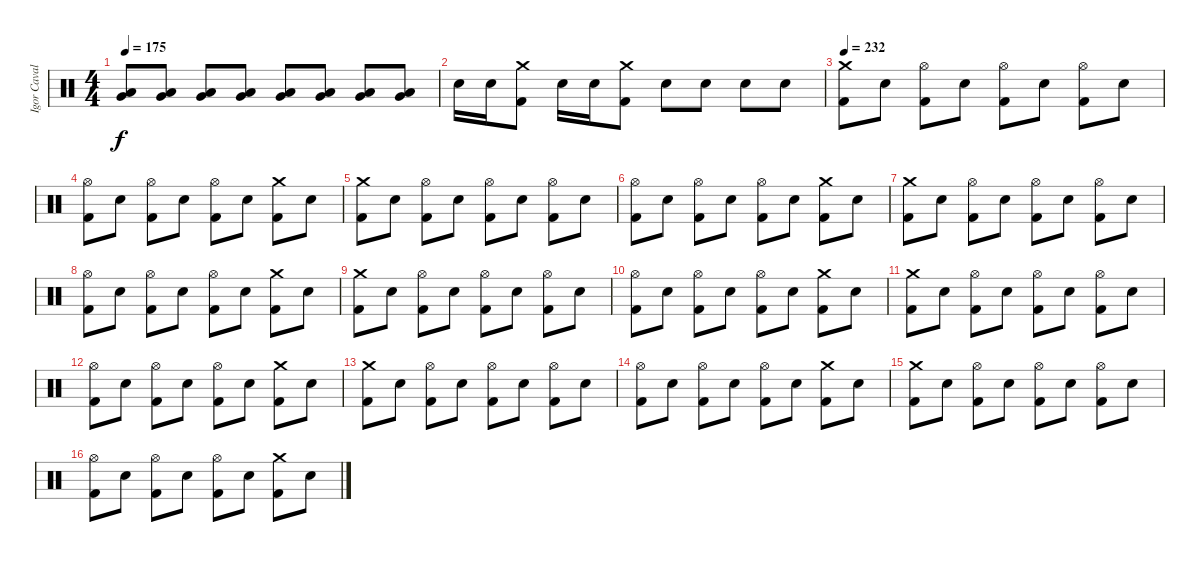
\track ("Igor Cavalera" "Igor Caval") {instrument percussion}
\staff {score}
\articulation defaults
\ts (4 4)
\tempo 175
\clef neutral
\ks c
("Low Floor Tom (hit)" "Very Low Tom (hit)").8{dy f} ("Low Floor Tom (hit)" "Very Low Tom (hit)").8 ("Low Floor Tom (hit)" "Very Low Tom (hit)").8 ("Low Floor Tom (hit)" "Very Low Tom (hit)").8 ("Very Low Tom (hit)" "Low Floor Tom (hit)").8 ("Very Low Tom (hit)" "Low Floor Tom (hit)").8 ("Very Low Tom (hit)" "Low Floor Tom (hit)").8 ("Very Low Tom (hit)" "Low Floor Tom (hit)").8 |
"Electric Snare (hit)".16 "Electric Snare (hit)".16 ("Crash medium (hit)" "Kick (hit) 2").8 "Electric Snare (hit)".16 "Electric Snare (hit)".16 ("Crash medium (hit)" "Kick (hit) 2").8 "Electric Snare (hit)".8 "Electric Snare (hit)".8 "Electric Snare (hit)".8 "Electric Snare (hit)".8 |
\tempo 232
("Crash medium (hit)" "Kick (hit) 2").8 "Electric Snare (hit)".8 ("Hi-Hat (open)" "Kick (hit) 2").8 "Electric Snare (hit)".8 ("Hi-Hat (open)" "Kick (hit) 2").8 "Electric Snare (hit)".8 ("Hi-Hat (open)" "Kick (hit) 2").8 "Electric Snare (hit)".8 |
("Hi-Hat (open)" "Kick (hit) 2").8 "Electric Snare (hit)".8 ("Hi-Hat (open)" "Kick (hit) 2").8 "Electric Snare (hit)".8 ("Hi-Hat (open)" "Kick (hit) 2").8 "Electric Snare (hit)".8 ("Crash medium (hit)" "Kick (hit) 2").8 "Electric Snare (hit)".8 |
("Crash medium (hit)" "Kick (hit) 2").8 "Electric Snare (hit)".8 ("Hi-Hat (open)" "Kick (hit) 2").8 "Electric Snare (hit)".8 ("Hi-Hat (open)" "Kick (hit) 2").8 "Electric Snare (hit)".8 ("Hi-Hat (open)" "Kick (hit) 2").8 "Electric Snare (hit)".8 |
("Hi-Hat (open)" "Kick (hit) 2").8 "Electric Snare (hit)".8 ("Hi-Hat (open)" "Kick (hit) 2").8 "Electric Snare (hit)".8 ("Hi-Hat (open)" "Kick (hit) 2").8 "Electric Snare (hit)".8 ("Crash medium (hit)" "Kick (hit) 2").8 "Electric Snare (hit)".8 |
("Crash medium (hit)" "Kick (hit) 2").8 "Electric Snare (hit)".8 ("Hi-Hat (open)" "Kick (hit) 2").8 "Electric Snare (hit)".8 ("Hi-Hat (open)" "Kick (hit) 2").8 "Electric Snare (hit)".8 ("Hi-Hat (open)" "Kick (hit) 2").8 "Electric Snare (hit)".8 |
("Hi-Hat (open)" "Kick (hit) 2").8 "Electric Snare (hit)".8 ("Hi-Hat (open)" "Kick (hit) 2").8 "Electric Snare (hit)".8 ("Hi-Hat (open)" "Kick (hit) 2").8 "Electric Snare (hit)".8 ("Crash medium (hit)" "Kick (hit) 2").8 "Electric Snare (hit)".8 |
("Crash medium (hit)" "Kick (hit) 2").8 "Electric Snare (hit)".8 ("Hi-Hat (open)" "Kick (hit) 2").8 "Electric Snare (hit)".8 ("Hi-Hat (open)" "Kick (hit) 2").8 "Electric Snare (hit)".8 ("Hi-Hat (open)" "Kick (hit) 2").8 "Electric Snare (hit)".8 |
("Hi-Hat (open)" "Kick (hit) 2").8 "Electric Snare (hit)".8 ("Hi-Hat (open)" "Kick (hit) 2").8 "Electric Snare (hit)".8 ("Hi-Hat (open)" "Kick (hit) 2").8 "Electric Snare (hit)".8 ("Crash medium (hit)" "Kick (hit) 2").8 "Electric Snare (hit)".8 |
("Crash medium (hit)" "Kick (hit) 2").8 "Electric Snare (hit)".8 ("Hi-Hat (open)" "Kick (hit) 2").8 "Electric Snare (hit)".8 ("Hi-Hat (open)" "Kick (hit) 2").8 "Electric Snare (hit)".8 ("Hi-Hat (open)" "Kick (hit) 2").8 "Electric Snare (hit)".8 |
("Hi-Hat (open)" "Kick (hit) 2").8 "Electric Snare (hit)".8 ("Hi-Hat (open)" "Kick (hit) 2").8 "Electric Snare (hit)".8 ("Hi-Hat (open)" "Kick (hit) 2").8 "Electric Snare (hit)".8 ("Crash medium (hit)" "Kick (hit) 2").8 "Electric Snare (hit)".8 |
("Crash medium (hit)" "Kick (hit) 2").8 "Electric Snare (hit)".8 ("Hi-Hat (open)" "Kick (hit) 2").8 "Electric Snare (hit)".8 ("Hi-Hat (open)" "Kick (hit) 2").8 "Electric Snare (hit)".8 ("Hi-Hat (open)" "Kick (hit) 2").8 "Electric Snare (hit)".8 |
("Hi-Hat (open)" "Kick (hit) 2").8 "Electric Snare (hit)".8 ("Hi-Hat (open)" "Kick (hit) 2").8 "Electric Snare (hit)".8 ("Hi-Hat (open)" "Kick (hit) 2").8 "Electric Snare (hit)".8 ("Crash medium (hit)" "Kick (hit) 2").8 "Electric Snare (hit)".8 |
("Crash medium (hit)" "Kick (hit) 2").8 "Electric Snare (hit)".8 ("Hi-Hat (open)" "Kick (hit) 2").8 "Electric Snare (hit)".8 ("Hi-Hat (open)" "Kick (hit) 2").8 "Electric Snare (hit)".8 ("Hi-Hat (open)" "Kick (hit) 2").8 "Electric Snare (hit)".8 |
("Hi-Hat (open)" "Kick (hit) 2").8 "Electric Snare (hit)".8 ("Hi-Hat (open)" "Kick (hit) 2").8 "Electric Snare (hit)".8 ("Hi-Hat (open)" "Kick (hit) 2").8 "Electric Snare (hit)".8 ("Crash medium (hit)" "Kick (hit) 2").8 "Electric Snare (hit)".8
